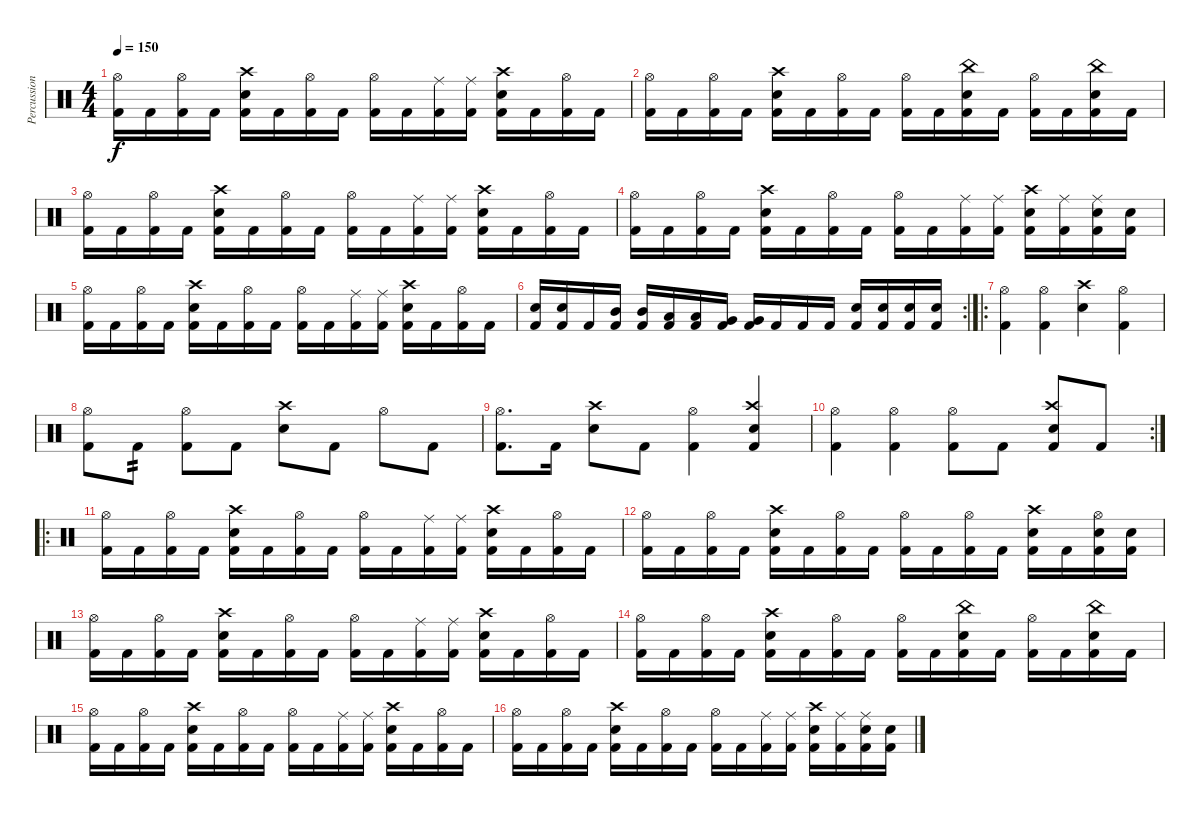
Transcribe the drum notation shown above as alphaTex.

\track ("Percussion" "Percussion") {instrument percussion}
\staff {score}
\articulation defaults
\ts (4 4)
\tempo 150
\clef neutral
\ks c
("Hi-Hat (open)" "Kick (hit) 2").16{dy f} "Kick (hit) 2".16 ("Hi-Hat (open)" "Kick (hit) 2").16 "Kick (hit) 2".16 ("Crash high (hit)" "Electric Snare (hit)" "Kick (hit) 2").16 "Kick (hit) 2".16 ("Hi-Hat (open)" "Kick (hit) 2").16 "Kick (hit) 2".16 ("Hi-Hat (open)" "Kick (hit) 2").16 "Kick (hit) 2".16 ("Ride (middle)" "Kick (hit) 2").16 ("Ride (middle)" "Kick (hit) 2").16 ("Crash high (hit)" "Electric Snare (hit)" "Kick (hit) 2").16 "Kick (hit) 2".16 ("Hi-Hat (open)" "Kick (hit) 2").16 "Kick (hit) 2".16 |
("Hi-Hat (open)" "Kick (hit) 2").16 "Kick (hit) 2".16 ("Hi-Hat (open)" "Kick (hit) 2").16 "Kick (hit) 2".16 ("Crash high (hit)" "Electric Snare (hit)" "Kick (hit) 2").16 "Kick (hit) 2".16 ("Hi-Hat (open)" "Kick (hit) 2").16 "Kick (hit) 2".16 ("Hi-Hat (open)" "Kick (hit) 2").16 "Kick (hit) 2".16 ("China (hit)" "Electric Snare (hit)" "Kick (hit) 2").16 "Kick (hit) 2".16 ("Hi-Hat (open)" "Kick (hit) 2").16 "Kick (hit) 2".16 ("China (hit)" "Electric Snare (hit)" "Kick (hit) 2").16 "Kick (hit) 2".16 |
("Hi-Hat (open)" "Kick (hit) 2").16 "Kick (hit) 2".16 ("Hi-Hat (open)" "Kick (hit) 2").16 "Kick (hit) 2".16 ("Crash high (hit)" "Electric Snare (hit)" "Kick (hit) 2").16 "Kick (hit) 2".16 ("Hi-Hat (open)" "Kick (hit) 2").16 "Kick (hit) 2".16 ("Hi-Hat (open)" "Kick (hit) 2").16 "Kick (hit) 2".16 ("Ride (middle)" "Kick (hit) 2").16 ("Ride (middle)" "Kick (hit) 2").16 ("Crash high (hit)" "Electric Snare (hit)" "Kick (hit) 2").16 "Kick (hit) 2".16 ("Hi-Hat (open)" "Kick (hit) 2").16 "Kick (hit) 2".16 |
("Hi-Hat (open)" "Kick (hit) 2").16 "Kick (hit) 2".16 ("Hi-Hat (open)" "Kick (hit) 2").16 "Kick (hit) 2".16 ("Crash high (hit)" "Electric Snare (hit)" "Kick (hit) 2").16 "Kick (hit) 2".16 ("Hi-Hat (open)" "Kick (hit) 2").16 "Kick (hit) 2".16 ("Hi-Hat (open)" "Kick (hit) 2").16 "Kick (hit) 2".16 ("Ride (middle)" "Kick (hit) 2").16 ("Ride (middle)" "Kick (hit) 2").16 ("Crash high (hit)" "Electric Snare (hit)" "Kick (hit) 2").16 ("Ride (middle)" "Kick (hit) 2").16 ("Ride (middle)" "Electric Snare (hit)" "Kick (hit) 2").16 ("Electric Snare (hit)" "Kick (hit) 2").16 |
("Hi-Hat (open)" "Kick (hit) 2").16 "Kick (hit) 2".16 ("Hi-Hat (open)" "Kick (hit) 2").16 "Kick (hit) 2".16 ("Crash high (hit)" "Electric Snare (hit)" "Kick (hit) 2").16 "Kick (hit) 2".16 ("Hi-Hat (open)" "Kick (hit) 2").16 "Kick (hit) 2".16 ("Hi-Hat (open)" "Kick (hit) 2").16 "Kick (hit) 2".16 ("Ride (middle)" "Kick (hit) 2").16 ("Ride (middle)" "Kick (hit) 2").16 ("Crash high (hit)" "Electric Snare (hit)" "Kick (hit) 2").16 "Kick (hit) 2".16 ("Hi-Hat (open)" "Kick (hit) 2").16 "Kick (hit) 2".16 |
\rc 2
("Electric Snare (hit)" "Kick (hit) 2").16 ("Electric Snare (hit)" "Kick (hit) 2").16 "Kick (hit) 2".16 ("Mid Tom (hit)" "Kick (hit) 2").16 ("Mid Tom (hit)" "Kick (hit) 2").16 ("Low Tom (hit)" "Kick (hit) 2").16 ("Low Tom (hit)" "Kick (hit) 2").16 ("Very Low Tom (hit)" "Kick (hit) 2").16 ("Very Low Tom (hit)" "Kick (hit) 2").16 "Kick (hit) 2".16 "Kick (hit) 2".16 "Kick (hit) 2".16 ("Electric Snare (hit)" "Kick (hit) 2").16 ("Electric Snare (hit)" "Kick (hit) 2").16 ("Electric Snare (hit)" "Kick (hit) 2").16 ("Electric Snare (hit)" "Kick (hit) 2").16 |
\ro
("Hi-Hat (open)" "Kick (hit) 2").4 ("Hi-Hat (open)" "Kick (hit) 2").4 ("Crash high (hit)" "Electric Snare (hit)").4 ("Hi-Hat (open)" "Kick (hit) 2").4 |
("Hi-Hat (open)" "Kick (hit) 2").8 "Kick (hit) 2".8{tp 2} ("Hi-Hat (open)" "Kick (hit) 2").8 "Kick (hit) 2".8 ("Crash high (hit)" "Electric Snare (hit)").8 "Kick (hit) 2".8 "Hi-Hat (open)".8 "Kick (hit) 2".8 |
("Hi-Hat (open)" "Kick (hit) 2").8{d} "Kick (hit) 2".16 ("Crash high (hit)" "Electric Snare (hit)").8 "Kick (hit) 2".8 ("Hi-Hat (open)" "Kick (hit) 2").4 ("Crash high (hit)" "Electric Snare (hit)" "Kick (hit) 2").4 |
\rc 2
("Hi-Hat (open)" "Kick (hit) 2").4 ("Hi-Hat (open)" "Kick (hit) 2").4 ("Hi-Hat (open)" "Kick (hit) 2").8 "Kick (hit) 2".8 ("Crash high (hit)" "Electric Snare (hit)" "Kick (hit) 2").8 "Kick (hit) 2".8 |
\ro
("Hi-Hat (open)" "Kick (hit) 2").16 "Kick (hit) 2".16 ("Hi-Hat (open)" "Kick (hit) 2").16 "Kick (hit) 2".16 ("Crash high (hit)" "Electric Snare (hit)" "Kick (hit) 2").16 "Kick (hit) 2".16 ("Hi-Hat (open)" "Kick (hit) 2").16 "Kick (hit) 2".16 ("Hi-Hat (open)" "Kick (hit) 2").16 "Kick (hit) 2".16 ("Ride (middle)" "Kick (hit) 2").16 ("Ride (middle)" "Kick (hit) 2").16 ("Crash high (hit)" "Electric Snare (hit)" "Kick (hit) 2").16 "Kick (hit) 2".16 ("Hi-Hat (open)" "Kick (hit) 2").16 "Kick (hit) 2".16 |
("Hi-Hat (open)" "Kick (hit) 2").16 "Kick (hit) 2".16 ("Hi-Hat (open)" "Kick (hit) 2").16 "Kick (hit) 2".16 ("Crash high (hit)" "Electric Snare (hit)" "Kick (hit) 2").16 "Kick (hit) 2".16 ("Hi-Hat (open)" "Kick (hit) 2").16 "Kick (hit) 2".16 ("Hi-Hat (open)" "Kick (hit) 2").16 "Kick (hit) 2".16 ("Hi-Hat (open)" "Kick (hit) 2").16 "Kick (hit) 2".16 ("Crash high (hit)" "Electric Snare (hit)" "Kick (hit) 2").16 "Kick (hit) 2".16 ("Hi-Hat (open)" "Electric Snare (hit)" "Kick (hit) 2").16 ("Electric Snare (hit)" "Kick (hit) 2").16 |
("Hi-Hat (open)" "Kick (hit) 2").16 "Kick (hit) 2".16 ("Hi-Hat (open)" "Kick (hit) 2").16 "Kick (hit) 2".16 ("Crash high (hit)" "Electric Snare (hit)" "Kick (hit) 2").16 "Kick (hit) 2".16 ("Hi-Hat (open)" "Kick (hit) 2").16 "Kick (hit) 2".16 ("Hi-Hat (open)" "Kick (hit) 2").16 "Kick (hit) 2".16 ("Ride (middle)" "Kick (hit) 2").16 ("Ride (middle)" "Kick (hit) 2").16 ("Crash high (hit)" "Electric Snare (hit)" "Kick (hit) 2").16 "Kick (hit) 2".16 ("Hi-Hat (open)" "Kick (hit) 2").16 "Kick (hit) 2".16 |
("Hi-Hat (open)" "Kick (hit) 2").16 "Kick (hit) 2".16 ("Hi-Hat (open)" "Kick (hit) 2").16 "Kick (hit) 2".16 ("Crash high (hit)" "Electric Snare (hit)" "Kick (hit) 2").16 "Kick (hit) 2".16 ("Hi-Hat (open)" "Kick (hit) 2").16 "Kick (hit) 2".16 ("Hi-Hat (open)" "Kick (hit) 2").16 "Kick (hit) 2".16 ("China (hit)" "Electric Snare (hit)" "Kick (hit) 2").16 "Kick (hit) 2".16 ("Hi-Hat (open)" "Kick (hit) 2").16 "Kick (hit) 2".16 ("China (hit)" "Electric Snare (hit)" "Kick (hit) 2").16 "Kick (hit) 2".16 |
("Hi-Hat (open)" "Kick (hit) 2").16 "Kick (hit) 2".16 ("Hi-Hat (open)" "Kick (hit) 2").16 "Kick (hit) 2".16 ("Crash high (hit)" "Electric Snare (hit)" "Kick (hit) 2").16 "Kick (hit) 2".16 ("Hi-Hat (open)" "Kick (hit) 2").16 "Kick (hit) 2".16 ("Hi-Hat (open)" "Kick (hit) 2").16 "Kick (hit) 2".16 ("Ride (middle)" "Kick (hit) 2").16 ("Ride (middle)" "Kick (hit) 2").16 ("Crash high (hit)" "Electric Snare (hit)" "Kick (hit) 2").16 "Kick (hit) 2".16 ("Hi-Hat (open)" "Kick (hit) 2").16 "Kick (hit) 2".16 |
("Hi-Hat (open)" "Kick (hit) 2").16 "Kick (hit) 2".16 ("Hi-Hat (open)" "Kick (hit) 2").16 "Kick (hit) 2".16 ("Crash high (hit)" "Electric Snare (hit)" "Kick (hit) 2").16 "Kick (hit) 2".16 ("Hi-Hat (open)" "Kick (hit) 2").16 "Kick (hit) 2".16 ("Hi-Hat (open)" "Kick (hit) 2").16 "Kick (hit) 2".16 ("Ride (middle)" "Kick (hit) 2").16 ("Ride (middle)" "Kick (hit) 2").16 ("Crash high (hit)" "Electric Snare (hit)" "Kick (hit) 2").16 ("Ride (middle)" "Kick (hit) 2").16 ("Ride (middle)" "Electric Snare (hit)" "Kick (hit) 2").16 ("Electric Snare (hit)" "Kick (hit) 2").16
